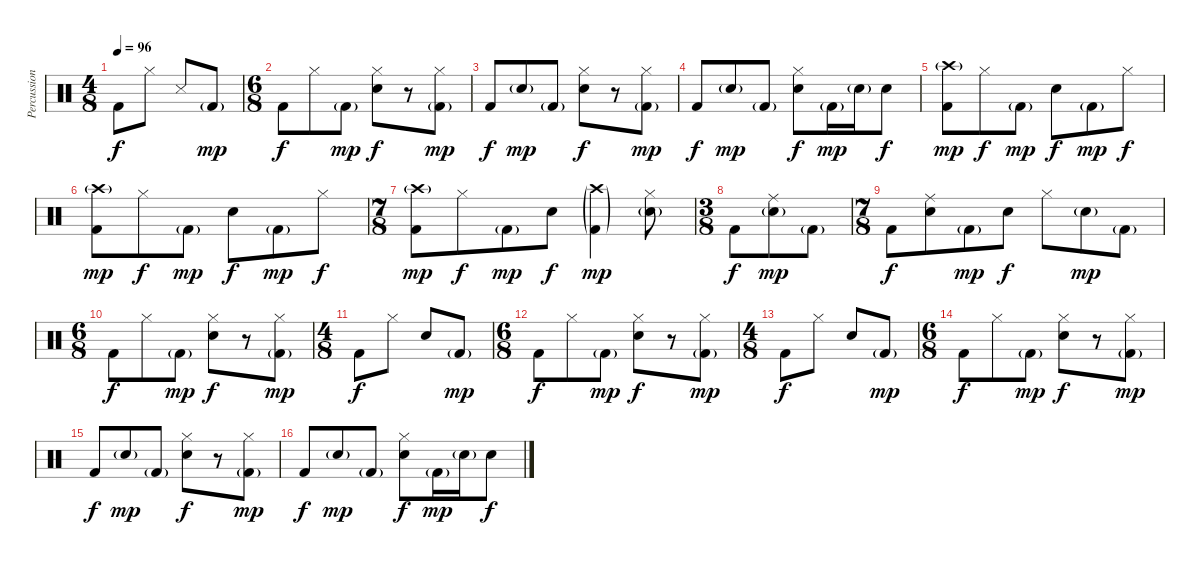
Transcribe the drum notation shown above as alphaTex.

\track ("Percussion" "Percussion") {instrument percussion}
\staff {score}
\articulation defaults
\ts (4 8)
\tempo 96
\clef neutral
\ks c "Kick (hit) 2".8{dy f} "Hi-Hat (closed)".8 "Snare (side stick) 3".8 "Kick (hit) 2"{g}.8{dy mp}
|
\ts (6 8)
"Kick (hit) 2".8{dy f} "Hi-Hat (closed)".8 "Kick (hit) 2"{g}.8{dy mp} ("Snare (hit) 2" "Hi-Hat (closed)").8{dy f} r.8 ("Hi-Hat (closed)" "Kick (hit) 2"{g}).8{dy mp} |
"Kick (hit) 2".8{dy f} "Snare (hit) 2"{g}.8{dy mp} "Kick (hit) 2"{g}.8 ("Snare (hit) 2" "Hi-Hat (closed)").8{dy f} r.8 ("Hi-Hat (closed)" "Kick (hit) 2"{g}).8{dy mp} |
"Kick (hit) 2".8{dy f} "Snare (hit) 2"{g}.8{dy mp} "Kick (hit) 2"{g}.8 ("Snare (hit) 2" "Hi-Hat (closed)").8{dy f} "Kick (hit) 2"{g}.16{dy mp} "Snare (hit) 2"{g}.16 "Snare (hit) 2".8{dy f} |
("Crash high (hit)"{g} "Kick (hit) 2").8{dy mp} "Hi-Hat (closed)".8{dy f} "Kick (hit) 2"{g}.8{dy mp} "Snare (hit) 2".8{dy f} "Kick (hit) 2"{g}.8{dy mp} "Hi-Hat (closed)".8{dy f} |
("Crash high (hit)"{g} "Kick (hit) 2").8{dy mp} "Hi-Hat (closed)".8{dy f} "Kick (hit) 2"{g}.8{dy mp} "Snare (hit) 2".8{dy f} "Kick (hit) 2"{g}.8{dy mp} "Hi-Hat (closed)".8{dy f} |
\ts (7 8)
("Crash high (hit)"{g} "Kick (hit) 2").8{dy mp} "Hi-Hat (closed)".8{dy f} "Kick (hit) 2"{g}.8{dy mp} "Snare (hit) 2".8{dy f} ("Crash high (hit)"{g} "Kick (hit) 2"{g}).4{dy mp} ("Snare (hit) 2"{g} "Hi-Hat (closed)").8 |
\ts (3 8)
"Kick (hit) 2".8{dy f} ("Ride (middle)" "Snare (hit) 2"{g}).8{dy mp} "Kick (hit) 2"{g}.8 |
\ts (7 8)
"Kick (hit) 2".8{dy f} ("Ride (middle)" "Snare (hit) 2").8 "Kick (hit) 2"{g}.8{dy mp} "Snare (hit) 2".8{dy f} "Hi-Hat (closed)".8 "Snare (hit) 2"{g}.8{dy mp} "Kick (hit) 2"{g}.8 |
\ts (6 8)
"Kick (hit) 2".8{dy f} "Hi-Hat (closed)".8 "Kick (hit) 2"{g}.8{dy mp} ("Snare (hit) 2" "Hi-Hat (closed)").8{dy f} r.8 ("Hi-Hat (closed)" "Kick (hit) 2"{g}).8{dy mp} |
\ts (4 8)
"Kick (hit) 2".8{dy f} "Hi-Hat (closed)".8 "Snare (hit) 2".8 "Kick (hit) 2"{g}.8{dy mp} |
\ts (6 8)
"Kick (hit) 2".8{dy f} "Hi-Hat (closed)".8 "Kick (hit) 2"{g}.8{dy mp} ("Snare (hit) 2" "Hi-Hat (closed)").8{dy f} r.8 ("Hi-Hat (closed)" "Kick (hit) 2"{g}).8{dy mp} |
\ts (4 8)
"Kick (hit) 2".8{dy f} "Hi-Hat (closed)".8 "Snare (hit) 2".8 "Kick (hit) 2"{g}.8{dy mp} |
\ts (6 8)
"Kick (hit) 2".8{dy f} "Hi-Hat (closed)".8 "Kick (hit) 2"{g}.8{dy mp} ("Snare (hit) 2" "Hi-Hat (closed)").8{dy f} r.8 ("Hi-Hat (closed)" "Kick (hit) 2"{g}).8{dy mp} |
"Kick (hit) 2".8{dy f} "Snare (hit) 2"{g}.8{dy mp} "Kick (hit) 2"{g}.8 ("Snare (hit) 2" "Hi-Hat (closed)").8{dy f} r.8 ("Hi-Hat (closed)" "Kick (hit) 2"{g}).8{dy mp} |
"Kick (hit) 2".8{dy f} "Snare (hit) 2"{g}.8{dy mp} "Kick (hit) 2"{g}.8 ("Snare (hit) 2" "Hi-Hat (closed)").8{dy f} "Kick (hit) 2"{g}.16{dy mp} "Snare (hit) 2"{g}.16 "Snare (hit) 2".8{dy f}
